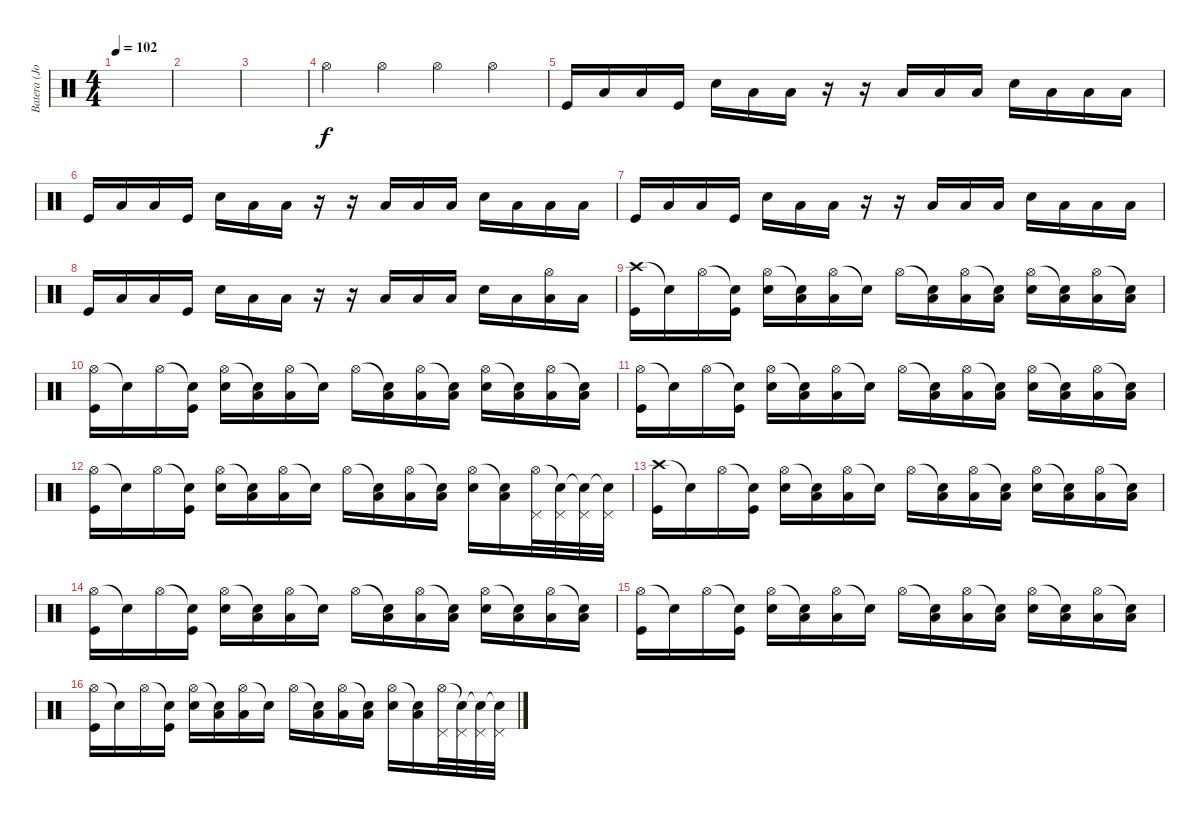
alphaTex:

\track ("Batera (John)" "Batera (Jo") {instrument percussion}
\staff {score}
\articulation defaults
\ts (4 4)
\tempo 102
\clef neutral
\ks c
|
|
|
"Hi-Hat (open)".4 "Hi-Hat (open)".4 "Hi-Hat (open)".4 "Hi-Hat (open)".4 |
"Kick (hit)".16 "Low Tom (hit)".16 "Low Tom (hit)".16 "Kick (hit)".16 "Snare (hit) 2".16 "Low Tom (hit)".16 "Low Tom (hit)".16 r.16 r.16 "Low Tom (hit)".16 "Low Tom (hit)".16 "Low Tom (hit)".16 "Snare (hit) 2".16 "Low Tom (hit)".16 "Low Tom (hit)".16 "Low Tom (hit)".16 |
"Kick (hit)".16 "Low Tom (hit)".16 "Low Tom (hit)".16 "Kick (hit)".16 "Snare (hit) 2".16 "Low Tom (hit)".16 "Low Tom (hit)".16 r.16 r.16 "Low Tom (hit)".16 "Low Tom (hit)".16 "Low Tom (hit)".16 "Snare (hit) 2".16 "Low Tom (hit)".16 "Low Tom (hit)".16 "Low Tom (hit)".16 |
"Kick (hit)".16 "Low Tom (hit)".16 "Low Tom (hit)".16 "Kick (hit)".16 "Snare (hit) 2".16 "Low Tom (hit)".16 "Low Tom (hit)".16 r.16 r.16 "Low Tom (hit)".16 "Low Tom (hit)".16 "Low Tom (hit)".16 "Snare (hit) 2".16 "Low Tom (hit)".16 "Low Tom (hit)".16 "Low Tom (hit)".16 |
"Kick (hit)".16 "Low Tom (hit)".16 "Low Tom (hit)".16 "Kick (hit)".16 "Snare (hit) 2".16 "Low Tom (hit)".16 "Low Tom (hit)".16 r.16 r.16 "Low Tom (hit)".16 "Low Tom (hit)".16 "Low Tom (hit)".16 "Snare (hit) 2".16 "Low Tom (hit)".16 ("Hi-Hat (open)" "Low Tom (hit)").16 "Low Tom (hit)".16 |
("Crash high (hit)" "Kick (hit)").16 "Snare (hit)"{t}.16 "Hi-Hat (open)".16 ("Snare (hit)"{t} "Kick (hit)").16 ("Hi-Hat (open)" "Snare (hit) 2").16 ("Snare (hit)"{t} "Low Tom (hit)").16 ("Hi-Hat (open)" "Low Tom (hit)").16 "Snare (hit)"{t}.16 "Hi-Hat (open)".16 ("Snare (hit)"{t} "Low Tom (hit)").16 ("Hi-Hat (open)" "Low Tom (hit)").16 ("Snare (hit)"{t} "Low Tom (hit)").16 ("Hi-Hat (open)" "Snare (hit) 2").16 ("Snare (hit)"{t} "Low Tom (hit)").16 ("Hi-Hat (open)" "Low Tom (hit)").16 ("Snare (hit)"{t} "Low Tom (hit)").16 |
("Hi-Hat (open)" "Kick (hit)").16 "Snare (hit)"{t}.16 "Hi-Hat (open)".16 ("Snare (hit)"{t} "Kick (hit)").16 ("Hi-Hat (open)" "Snare (hit) 2").16 ("Snare (hit)"{t} "Low Tom (hit)").16 ("Hi-Hat (open)" "Low Tom (hit)").16 "Snare (hit)"{t}.16 "Hi-Hat (open)".16 ("Snare (hit)"{t} "Low Tom (hit)").16 ("Hi-Hat (open)" "Low Tom (hit)").16 ("Snare (hit)"{t} "Low Tom (hit)").16 ("Hi-Hat (open)" "Snare (hit) 2").16 ("Snare (hit)"{t} "Low Tom (hit)").16 ("Hi-Hat (open)" "Low Tom (hit)").16 ("Snare (hit)"{t} "Low Tom (hit)").16 |
("Hi-Hat (open)" "Kick (hit)").16 "Snare (hit)"{t}.16 "Hi-Hat (open)".16 ("Snare (hit)"{t} "Kick (hit)").16 ("Hi-Hat (open)" "Snare (hit) 2").16 ("Snare (hit)"{t} "Low Tom (hit)").16 ("Hi-Hat (open)" "Low Tom (hit)").16 "Snare (hit)"{t}.16 "Hi-Hat (open)".16 ("Snare (hit)"{t} "Low Tom (hit)").16 ("Hi-Hat (open)" "Low Tom (hit)").16 ("Snare (hit)"{t} "Low Tom (hit)").16 ("Hi-Hat (open)" "Snare (hit) 2").16 ("Snare (hit)"{t} "Low Tom (hit)").16 ("Hi-Hat (open)" "Low Tom (hit)").16 ("Snare (hit)"{t} "Low Tom (hit)").16 |
("Hi-Hat (open)" "Kick (hit)").16 "Snare (hit)"{t}.16 "Hi-Hat (open)".16 ("Snare (hit)"{t} "Kick (hit)").16 ("Hi-Hat (open)" "Snare (hit) 2").16 ("Snare (hit)"{t} "Low Tom (hit)").16 ("Hi-Hat (open)" "Low Tom (hit)").16 "Snare (hit)"{t}.16 "Hi-Hat (open)".16 ("Snare (hit)"{t} "Low Tom (hit)").16 ("Hi-Hat (open)" "Low Tom (hit)").16 ("Snare (hit)"{t} "Low Tom (hit)").16 ("Hi-Hat (open)" "Snare (hit) 2").16 ("Snare (hit)"{t} "Low Tom (hit)").16 ("Hi-Hat (open)" "Pedal Hi-Hat (hit)").32 ("Snare (hit)"{t} "Pedal Hi-Hat (hit)").32 ("Snare (hit)"{t} "Pedal Hi-Hat (hit)").32 ("Snare (hit)"{t} "Pedal Hi-Hat (hit)").32 |
("Crash high (hit)" "Kick (hit)").16 "Snare (hit)"{t}.16 "Hi-Hat (open)".16 ("Snare (hit)"{t} "Kick (hit)").16 ("Hi-Hat (open)" "Snare (hit) 2").16 ("Snare (hit)"{t} "Low Tom (hit)").16 ("Hi-Hat (open)" "Low Tom (hit)").16 "Snare (hit)"{t}.16 "Hi-Hat (open)".16 ("Snare (hit)"{t} "Low Tom (hit)").16 ("Hi-Hat (open)" "Low Tom (hit)").16 ("Snare (hit)"{t} "Low Tom (hit)").16 ("Hi-Hat (open)" "Snare (hit) 2").16 ("Snare (hit)"{t} "Low Tom (hit)").16 ("Hi-Hat (open)" "Low Tom (hit)").16 ("Snare (hit)"{t} "Low Tom (hit)").16 |
("Hi-Hat (open)" "Kick (hit)").16 "Snare (hit)"{t}.16 "Hi-Hat (open)".16 ("Snare (hit)"{t} "Kick (hit)").16 ("Hi-Hat (open)" "Snare (hit) 2").16 ("Snare (hit)"{t} "Low Tom (hit)").16 ("Hi-Hat (open)" "Low Tom (hit)").16 "Snare (hit)"{t}.16 "Hi-Hat (open)".16 ("Snare (hit)"{t} "Low Tom (hit)").16 ("Hi-Hat (open)" "Low Tom (hit)").16 ("Snare (hit)"{t} "Low Tom (hit)").16 ("Hi-Hat (open)" "Snare (hit) 2").16 ("Snare (hit)"{t} "Low Tom (hit)").16 ("Hi-Hat (open)" "Low Tom (hit)").16 ("Snare (hit)"{t} "Low Tom (hit)").16 |
("Hi-Hat (open)" "Kick (hit)").16 "Snare (hit)"{t}.16 "Hi-Hat (open)".16 ("Snare (hit)"{t} "Kick (hit)").16 ("Hi-Hat (open)" "Snare (hit) 2").16 ("Snare (hit)"{t} "Low Tom (hit)").16 ("Hi-Hat (open)" "Low Tom (hit)").16 "Snare (hit)"{t}.16 "Hi-Hat (open)".16 ("Snare (hit)"{t} "Low Tom (hit)").16 ("Hi-Hat (open)" "Low Tom (hit)").16 ("Snare (hit)"{t} "Low Tom (hit)").16 ("Hi-Hat (open)" "Snare (hit) 2").16 ("Snare (hit)"{t} "Low Tom (hit)").16 ("Hi-Hat (open)" "Low Tom (hit)").16 ("Snare (hit)"{t} "Low Tom (hit)").16 |
("Hi-Hat (open)" "Kick (hit)").16 "Snare (hit)"{t}.16 "Hi-Hat (open)".16 ("Snare (hit)"{t} "Kick (hit)").16 ("Hi-Hat (open)" "Snare (hit) 2").16 ("Snare (hit)"{t} "Low Tom (hit)").16 ("Hi-Hat (open)" "Low Tom (hit)").16 "Snare (hit)"{t}.16 "Hi-Hat (open)".16 ("Snare (hit)"{t} "Low Tom (hit)").16 ("Hi-Hat (open)" "Low Tom (hit)").16 ("Snare (hit)"{t} "Low Tom (hit)").16 ("Hi-Hat (open)" "Snare (hit) 2").16 ("Snare (hit)"{t} "Low Tom (hit)").16 ("Hi-Hat (open)" "Pedal Hi-Hat (hit)").32 ("Snare (hit)"{t} "Pedal Hi-Hat (hit)").32 ("Snare (hit)"{t} "Pedal Hi-Hat (hit)").32 ("Snare (hit)"{t} "Pedal Hi-Hat (hit)").32
